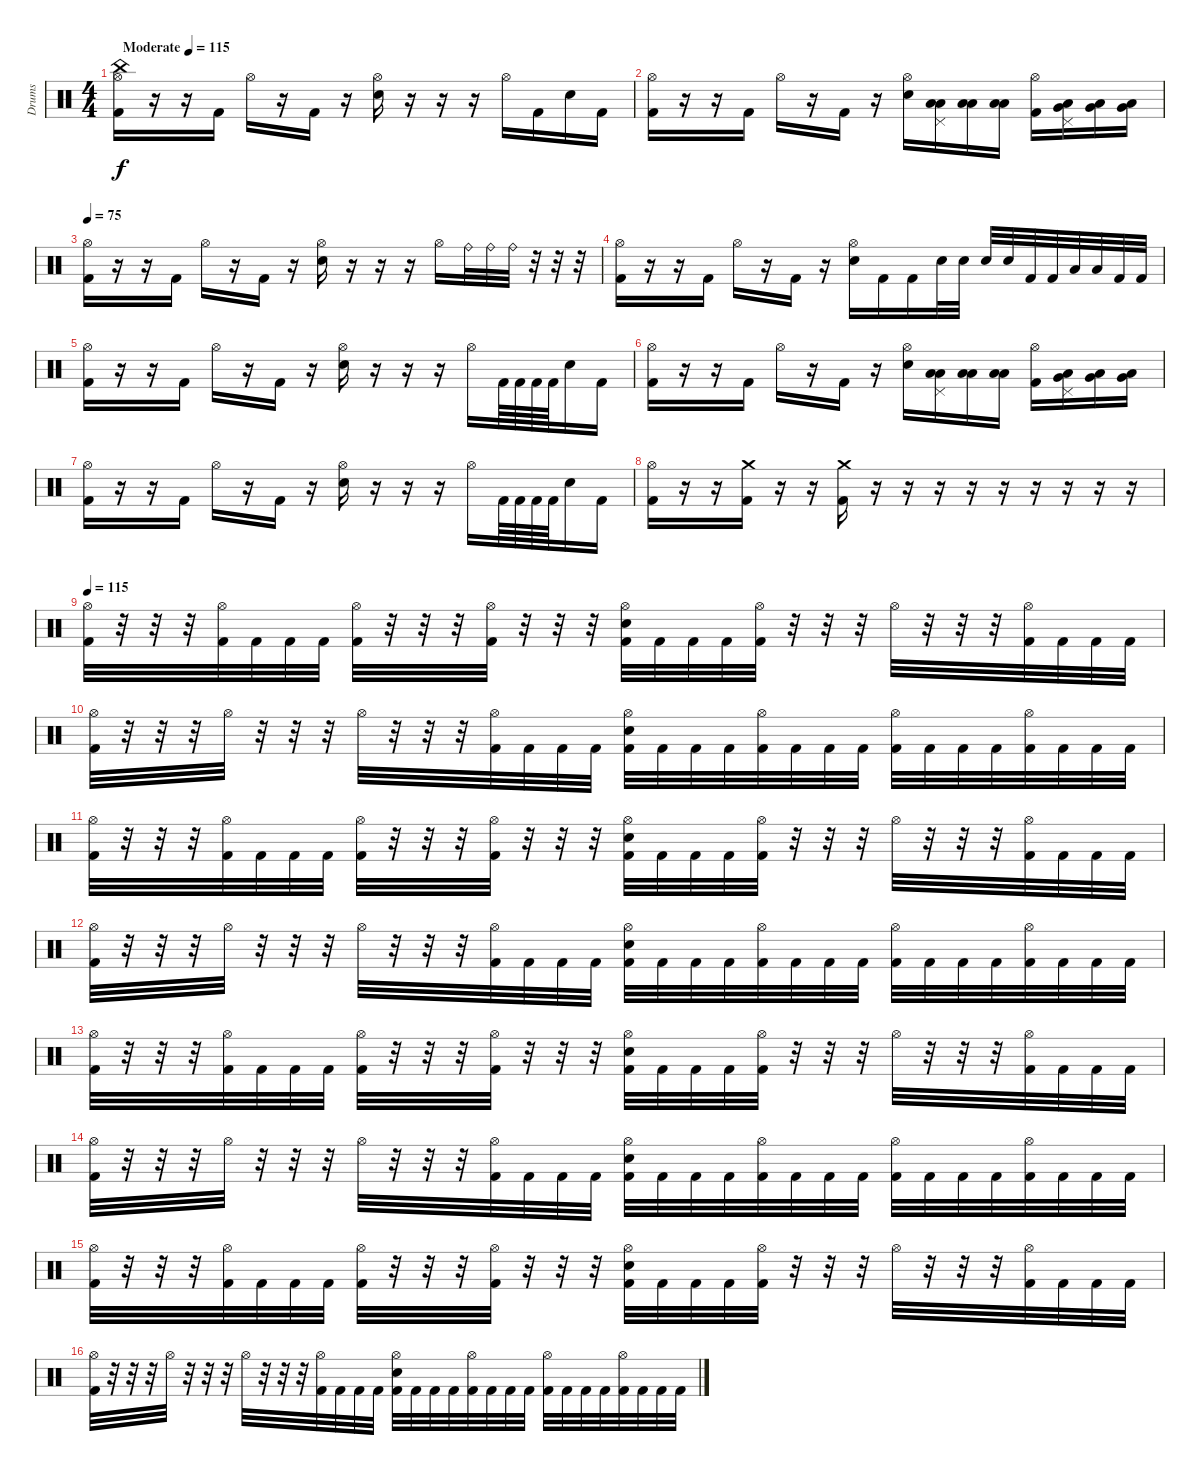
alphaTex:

\track ("Drums" "Drums") {instrument percussion}
\staff {score}
\articulation defaults
\ts (4 4)
\tempo (115 "Moderate")
\tempo 75
\tempo (115 "Moderate")
\clef neutral
\ks c
("China (hit)" "Hi-Hat (open)" "Kick (hit) 2").16{dy f} r.16 r.16 "Kick (hit) 2".16 "Hi-Hat (open)".16 r.16 "Kick (hit) 2".16 r.16 ("Snare (hit) 2" "Hi-Hat (open)").16 r.16 r.16 r.16 "Hi-Hat (open)".16 "Kick (hit) 2".16 "Snare (hit) 2".16 "Kick (hit) 2".16 |
("Hi-Hat (open)" "Kick (hit) 2").16 r.16 r.16 "Kick (hit) 2".16 "Hi-Hat (open)".16 r.16 "Kick (hit) 2".16 r.16 ("Snare (hit) 2" "Hi-Hat (open)").16 ("Low Tom (hit)" "Low Floor Tom (hit)" "Pedal Hi-Hat (hit)").16 ("Low Tom (hit)" "Low Floor Tom (hit)").16 ("Low Tom (hit)" "Low Floor Tom (hit)").16 ("Hi-Hat (open)" "Kick (hit) 2").16 ("Very Low Tom (hit)" "Low Floor Tom (hit)" "Pedal Hi-Hat (hit)").16 ("Very Low Tom (hit)" "Low Floor Tom (hit)").16 ("Very Low Tom (hit)" "Low Floor Tom (hit)").16 |
\tempo 75
("Hi-Hat (open)" "Kick (hit) 2").16 r.16 r.16 "Kick (hit) 2".16 "Hi-Hat (open)".16 r.16 "Kick (hit) 2".16 r.16 ("Snare (hit) 2" "Hi-Hat (open)").16 r.16 r.16 r.16 "Hi-Hat (open)".16 "Ride (bell)".32 "Ride (bell)".32 "Ride (bell)".32 r.32 r.32 r.32 |
("Hi-Hat (open)" "Kick (hit) 2").16 r.16 r.16 "Kick (hit) 2".16 "Hi-Hat (open)".16 r.16 "Kick (hit) 2".16 r.16 ("Snare (hit) 2" "Hi-Hat (open)").16 "Kick (hit) 2".16 "Kick (hit) 2".16 "Snare (hit) 2".32 "Snare (hit) 2".32 "Snare (hit) 2".32 "Snare (hit) 2".32 "Kick (hit) 2".32 "Kick (hit) 2".32 "Low Tom (hit)".32 "Low Tom (hit)".32 "Kick (hit) 2".32 "Kick (hit) 2".32 |
("Hi-Hat (open)" "Kick (hit) 2").16 r.16 r.16 "Kick (hit) 2".16 "Hi-Hat (open)".16 r.16 "Kick (hit) 2".16 r.16 ("Snare (hit) 2" "Hi-Hat (open)").16 r.16 r.16 r.16 "Hi-Hat (open)".16 "Kick (hit) 2".64 "Kick (hit) 2".64 "Kick (hit) 2".64 "Kick (hit) 2".64 "Snare (hit) 2".16 "Kick (hit) 2".16 |
("Hi-Hat (open)" "Kick (hit) 2").16 r.16 r.16 "Kick (hit) 2".16 "Hi-Hat (open)".16 r.16 "Kick (hit) 2".16 r.16 ("Snare (hit) 2" "Hi-Hat (open)").16 ("Low Tom (hit)" "Low Floor Tom (hit)" "Pedal Hi-Hat (hit)").16 ("Low Tom (hit)" "Low Floor Tom (hit)").16 ("Low Tom (hit)" "Low Floor Tom (hit)").16 ("Hi-Hat (open)" "Kick (hit) 2").16 ("Very Low Tom (hit)" "Low Floor Tom (hit)" "Pedal Hi-Hat (hit)").16 ("Very Low Tom (hit)" "Low Floor Tom (hit)").16 ("Very Low Tom (hit)" "Low Floor Tom (hit)").16 |
("Hi-Hat (open)" "Kick (hit) 2").16 r.16 r.16 "Kick (hit) 2".16 "Hi-Hat (open)".16 r.16 "Kick (hit) 2".16 r.16 ("Snare (hit) 2" "Hi-Hat (open)").16 r.16 r.16 r.16 "Hi-Hat (open)".16 "Kick (hit) 2".64 "Kick (hit) 2".64 "Kick (hit) 2".64 "Kick (hit) 2".64 "Snare (hit) 2".16 "Kick (hit) 2".16 |
("Hi-Hat (open)" "Kick (hit) 2").16 r.16 r.16 ("Crash medium (hit)" "Kick (hit) 2").16 r.16 r.16 ("Crash medium (hit)" "Kick (hit) 2").16 r.16 r.16 r.16 r.16 r.16 r.16 r.16 r.16 r.16 |
\tempo 115
("Hi-Hat (open)" "Kick (hit) 2").32 r.32 r.32 r.32 ("Hi-Hat (open)" "Kick (hit) 2").32 "Kick (hit) 2".32 "Kick (hit) 2".32 "Kick (hit) 2".32 ("Hi-Hat (open)" "Kick (hit) 2").32 r.32 r.32 r.32 ("Hi-Hat (open)" "Kick (hit) 2").32 r.32 r.32 r.32 ("Snare (hit) 2" "Hi-Hat (open)" "Kick (hit) 2").32 "Kick (hit) 2".32 "Kick (hit) 2".32 "Kick (hit) 2".32 ("Hi-Hat (open)" "Kick (hit) 2").32 r.32 r.32 r.32 "Hi-Hat (open)".32 r.32 r.32 r.32 ("Hi-Hat (open)" "Kick (hit) 2").32 "Kick (hit) 2".32 "Kick (hit) 2".32 "Kick (hit) 2".32 |
("Hi-Hat (open)" "Kick (hit) 2").32 r.32 r.32 r.32 "Hi-Hat (open)".32 r.32 r.32 r.32 "Hi-Hat (open)".32 r.32 r.32 r.32 ("Hi-Hat (open)" "Kick (hit) 2").32 "Kick (hit) 2".32 "Kick (hit) 2".32 "Kick (hit) 2".32 ("Snare (hit) 2" "Hi-Hat (open)" "Kick (hit) 2").32 "Kick (hit) 2".32 "Kick (hit) 2".32 "Kick (hit) 2".32 ("Hi-Hat (open)" "Kick (hit) 2").32 "Kick (hit) 2".32 "Kick (hit) 2".32 "Kick (hit) 2".32 ("Hi-Hat (open)" "Kick (hit) 2").32 "Kick (hit) 2".32 "Kick (hit) 2".32 "Kick (hit) 2".32 ("Hi-Hat (open)" "Kick (hit) 2").32 "Kick (hit) 2".32 "Kick (hit) 2".32 "Kick (hit) 2".32 |
("Hi-Hat (open)" "Kick (hit) 2").32 r.32 r.32 r.32 ("Hi-Hat (open)" "Kick (hit) 2").32 "Kick (hit) 2".32 "Kick (hit) 2".32 "Kick (hit) 2".32 ("Hi-Hat (open)" "Kick (hit) 2").32 r.32 r.32 r.32 ("Hi-Hat (open)" "Kick (hit) 2").32 r.32 r.32 r.32 ("Snare (hit) 2" "Hi-Hat (open)" "Kick (hit) 2").32 "Kick (hit) 2".32 "Kick (hit) 2".32 "Kick (hit) 2".32 ("Hi-Hat (open)" "Kick (hit) 2").32 r.32 r.32 r.32 "Hi-Hat (open)".32 r.32 r.32 r.32 ("Hi-Hat (open)" "Kick (hit) 2").32 "Kick (hit) 2".32 "Kick (hit) 2".32 "Kick (hit) 2".32 |
("Hi-Hat (open)" "Kick (hit) 2").32 r.32 r.32 r.32 "Hi-Hat (open)".32 r.32 r.32 r.32 "Hi-Hat (open)".32 r.32 r.32 r.32 ("Hi-Hat (open)" "Kick (hit) 2").32 "Kick (hit) 2".32 "Kick (hit) 2".32 "Kick (hit) 2".32 ("Snare (hit) 2" "Hi-Hat (open)" "Kick (hit) 2").32 "Kick (hit) 2".32 "Kick (hit) 2".32 "Kick (hit) 2".32 ("Hi-Hat (open)" "Kick (hit) 2").32 "Kick (hit) 2".32 "Kick (hit) 2".32 "Kick (hit) 2".32 ("Hi-Hat (open)" "Kick (hit) 2").32 "Kick (hit) 2".32 "Kick (hit) 2".32 "Kick (hit) 2".32 ("Hi-Hat (open)" "Kick (hit) 2").32 "Kick (hit) 2".32 "Kick (hit) 2".32 "Kick (hit) 2".32 |
("Hi-Hat (open)" "Kick (hit) 2").32 r.32 r.32 r.32 ("Hi-Hat (open)" "Kick (hit) 2").32 "Kick (hit) 2".32 "Kick (hit) 2".32 "Kick (hit) 2".32 ("Hi-Hat (open)" "Kick (hit) 2").32 r.32 r.32 r.32 ("Hi-Hat (open)" "Kick (hit) 2").32 r.32 r.32 r.32 ("Snare (hit) 2" "Hi-Hat (open)" "Kick (hit) 2").32 "Kick (hit) 2".32 "Kick (hit) 2".32 "Kick (hit) 2".32 ("Hi-Hat (open)" "Kick (hit) 2").32 r.32 r.32 r.32 "Hi-Hat (open)".32 r.32 r.32 r.32 ("Hi-Hat (open)" "Kick (hit) 2").32 "Kick (hit) 2".32 "Kick (hit) 2".32 "Kick (hit) 2".32 |
("Hi-Hat (open)" "Kick (hit) 2").32 r.32 r.32 r.32 "Hi-Hat (open)".32 r.32 r.32 r.32 "Hi-Hat (open)".32 r.32 r.32 r.32 ("Hi-Hat (open)" "Kick (hit) 2").32 "Kick (hit) 2".32 "Kick (hit) 2".32 "Kick (hit) 2".32 ("Snare (hit) 2" "Hi-Hat (open)" "Kick (hit) 2").32 "Kick (hit) 2".32 "Kick (hit) 2".32 "Kick (hit) 2".32 ("Hi-Hat (open)" "Kick (hit) 2").32 "Kick (hit) 2".32 "Kick (hit) 2".32 "Kick (hit) 2".32 ("Hi-Hat (open)" "Kick (hit) 2").32 "Kick (hit) 2".32 "Kick (hit) 2".32 "Kick (hit) 2".32 ("Hi-Hat (open)" "Kick (hit) 2").32 "Kick (hit) 2".32 "Kick (hit) 2".32 "Kick (hit) 2".32 |
("Hi-Hat (open)" "Kick (hit) 2").32 r.32 r.32 r.32 ("Hi-Hat (open)" "Kick (hit) 2").32 "Kick (hit) 2".32 "Kick (hit) 2".32 "Kick (hit) 2".32 ("Hi-Hat (open)" "Kick (hit) 2").32 r.32 r.32 r.32 ("Hi-Hat (open)" "Kick (hit) 2").32 r.32 r.32 r.32 ("Snare (hit) 2" "Hi-Hat (open)" "Kick (hit) 2").32 "Kick (hit) 2".32 "Kick (hit) 2".32 "Kick (hit) 2".32 ("Hi-Hat (open)" "Kick (hit) 2").32 r.32 r.32 r.32 "Hi-Hat (open)".32 r.32 r.32 r.32 ("Hi-Hat (open)" "Kick (hit) 2").32 "Kick (hit) 2".32 "Kick (hit) 2".32 "Kick (hit) 2".32 |
("Hi-Hat (open)" "Kick (hit) 2").32 r.32 r.32 r.32 "Hi-Hat (open)".32 r.32 r.32 r.32 "Hi-Hat (open)".32 r.32 r.32 r.32 ("Hi-Hat (open)" "Kick (hit) 2").32 "Kick (hit) 2".32 "Kick (hit) 2".32 "Kick (hit) 2".32 ("Snare (hit) 2" "Hi-Hat (open)" "Kick (hit) 2").32 "Kick (hit) 2".32 "Kick (hit) 2".32 "Kick (hit) 2".32 ("Hi-Hat (open)" "Kick (hit) 2").32 "Kick (hit) 2".32 "Kick (hit) 2".32 "Kick (hit) 2".32 ("Hi-Hat (open)" "Kick (hit) 2").32 "Kick (hit) 2".32 "Kick (hit) 2".32 "Kick (hit) 2".32 ("Hi-Hat (open)" "Kick (hit) 2").32 "Kick (hit) 2".32 "Kick (hit) 2".32 "Kick (hit) 2".32
